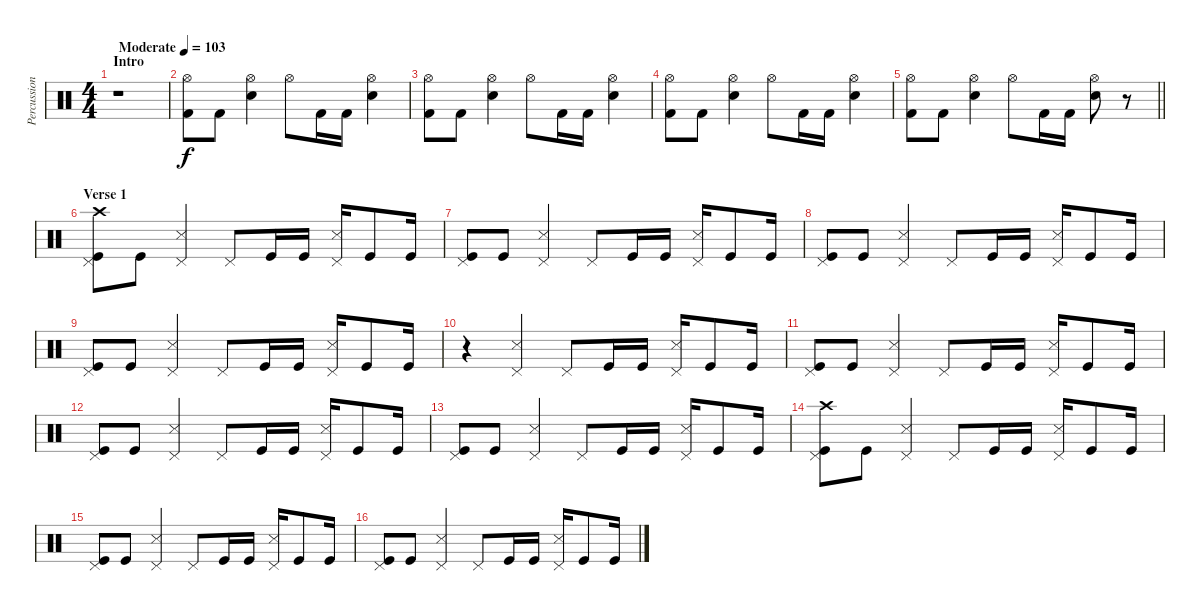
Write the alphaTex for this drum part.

\track ("Percussions" "Percussion") {instrument percussion}
\staff {score}
\articulation defaults
\ts (4 4)
\section ("" "Intro")
\tempo (103 "Moderate")
\clef neutral
\ks c
r.1{dy f} |
("Hi-Hat (open)" "Kick (hit) 2").8 "Kick (hit) 2".8 ("Hi-Hat (open)" "Electric Snare (hit)").4 "Hi-Hat (open)".8 "Kick (hit) 2".16 "Kick (hit) 2".16 ("Hi-Hat (open)" "Electric Snare (hit)").4 |
("Hi-Hat (open)" "Kick (hit) 2").8 "Kick (hit) 2".8 ("Hi-Hat (open)" "Electric Snare (hit)").4 "Hi-Hat (open)".8 "Kick (hit) 2".16 "Kick (hit) 2".16 ("Hi-Hat (open)" "Electric Snare (hit)").4 |
("Hi-Hat (open)" "Kick (hit) 2").8 "Kick (hit) 2".8 ("Hi-Hat (open)" "Electric Snare (hit)").4 "Hi-Hat (open)".8 "Kick (hit) 2".16 "Kick (hit) 2".16 ("Hi-Hat (open)" "Electric Snare (hit)").4 |
\barLineRight lightlight
("Hi-Hat (open)" "Kick (hit) 2").8 "Kick (hit) 2".8 ("Hi-Hat (open)" "Electric Snare (hit)").4 "Hi-Hat (open)".8 "Kick (hit) 2".16 "Kick (hit) 2".16 ("Hi-Hat (open)" "Electric Snare (hit)").8 r.8 |
\section ("" "Verse 1")
("Crash high (hit)" "Pedal Hi-Hat (hit)" "Kick (hit)").8 "Kick (hit)".8 ("Pedal Hi-Hat (hit)" "Snare (side stick) 3").4 "Pedal Hi-Hat (hit)".8 "Kick (hit)".16 "Kick (hit)".16 ("Pedal Hi-Hat (hit)" "Snare (side stick) 3").16 "Kick (hit)".8 "Kick (hit)".16 |
("Pedal Hi-Hat (hit)" "Kick (hit)").8 "Kick (hit)".8 ("Pedal Hi-Hat (hit)" "Snare (side stick) 3").4 "Pedal Hi-Hat (hit)".8 "Kick (hit)".16 "Kick (hit)".16 ("Pedal Hi-Hat (hit)" "Snare (side stick) 3").16 "Kick (hit)".8 "Kick (hit)".16 |
("Pedal Hi-Hat (hit)" "Kick (hit)").8 "Kick (hit)".8 ("Pedal Hi-Hat (hit)" "Snare (side stick) 3").4 "Pedal Hi-Hat (hit)".8 "Kick (hit)".16 "Kick (hit)".16 ("Pedal Hi-Hat (hit)" "Snare (side stick) 3").16 "Kick (hit)".8 "Kick (hit)".16 |
("Pedal Hi-Hat (hit)" "Kick (hit)").8 "Kick (hit)".8 ("Pedal Hi-Hat (hit)" "Snare (side stick) 3").4 "Pedal Hi-Hat (hit)".8 "Kick (hit)".16 "Kick (hit)".16 ("Pedal Hi-Hat (hit)" "Snare (side stick) 3").16 "Kick (hit)".8 "Kick (hit)".16 |
r.4 ("Pedal Hi-Hat (hit)" "Snare (side stick) 3").4 "Pedal Hi-Hat (hit)".8 "Kick (hit)".16 "Kick (hit)".16 ("Pedal Hi-Hat (hit)" "Snare (side stick) 3").16 "Kick (hit)".8 "Kick (hit)".16 |
("Pedal Hi-Hat (hit)" "Kick (hit)").8 "Kick (hit)".8 ("Pedal Hi-Hat (hit)" "Snare (side stick) 3").4 "Pedal Hi-Hat (hit)".8 "Kick (hit)".16 "Kick (hit)".16 ("Pedal Hi-Hat (hit)" "Snare (side stick) 3").16 "Kick (hit)".8 "Kick (hit)".16 |
("Pedal Hi-Hat (hit)" "Kick (hit)").8 "Kick (hit)".8 ("Pedal Hi-Hat (hit)" "Snare (side stick) 3").4 "Pedal Hi-Hat (hit)".8 "Kick (hit)".16 "Kick (hit)".16 ("Pedal Hi-Hat (hit)" "Snare (side stick) 3").16 "Kick (hit)".8 "Kick (hit)".16 |
("Pedal Hi-Hat (hit)" "Kick (hit)").8 "Kick (hit)".8 ("Pedal Hi-Hat (hit)" "Snare (side stick) 3").4 "Pedal Hi-Hat (hit)".8 "Kick (hit)".16 "Kick (hit)".16 ("Pedal Hi-Hat (hit)" "Snare (side stick) 3").16 "Kick (hit)".8 "Kick (hit)".16 |
("Crash high (hit)" "Pedal Hi-Hat (hit)" "Kick (hit)").8 "Kick (hit)".8 ("Pedal Hi-Hat (hit)" "Snare (side stick) 3").4 "Pedal Hi-Hat (hit)".8 "Kick (hit)".16 "Kick (hit)".16 ("Pedal Hi-Hat (hit)" "Snare (side stick) 3").16 "Kick (hit)".8 "Kick (hit)".16 |
("Pedal Hi-Hat (hit)" "Kick (hit)").8 "Kick (hit)".8 ("Pedal Hi-Hat (hit)" "Snare (side stick) 3").4 "Pedal Hi-Hat (hit)".8 "Kick (hit)".16 "Kick (hit)".16 ("Pedal Hi-Hat (hit)" "Snare (side stick) 3").16 "Kick (hit)".8 "Kick (hit)".16 |
("Pedal Hi-Hat (hit)" "Kick (hit)").8 "Kick (hit)".8 ("Pedal Hi-Hat (hit)" "Snare (side stick) 3").4 "Pedal Hi-Hat (hit)".8 "Kick (hit)".16 "Kick (hit)".16 ("Pedal Hi-Hat (hit)" "Snare (side stick) 3").16 "Kick (hit)".8 "Kick (hit)".16
